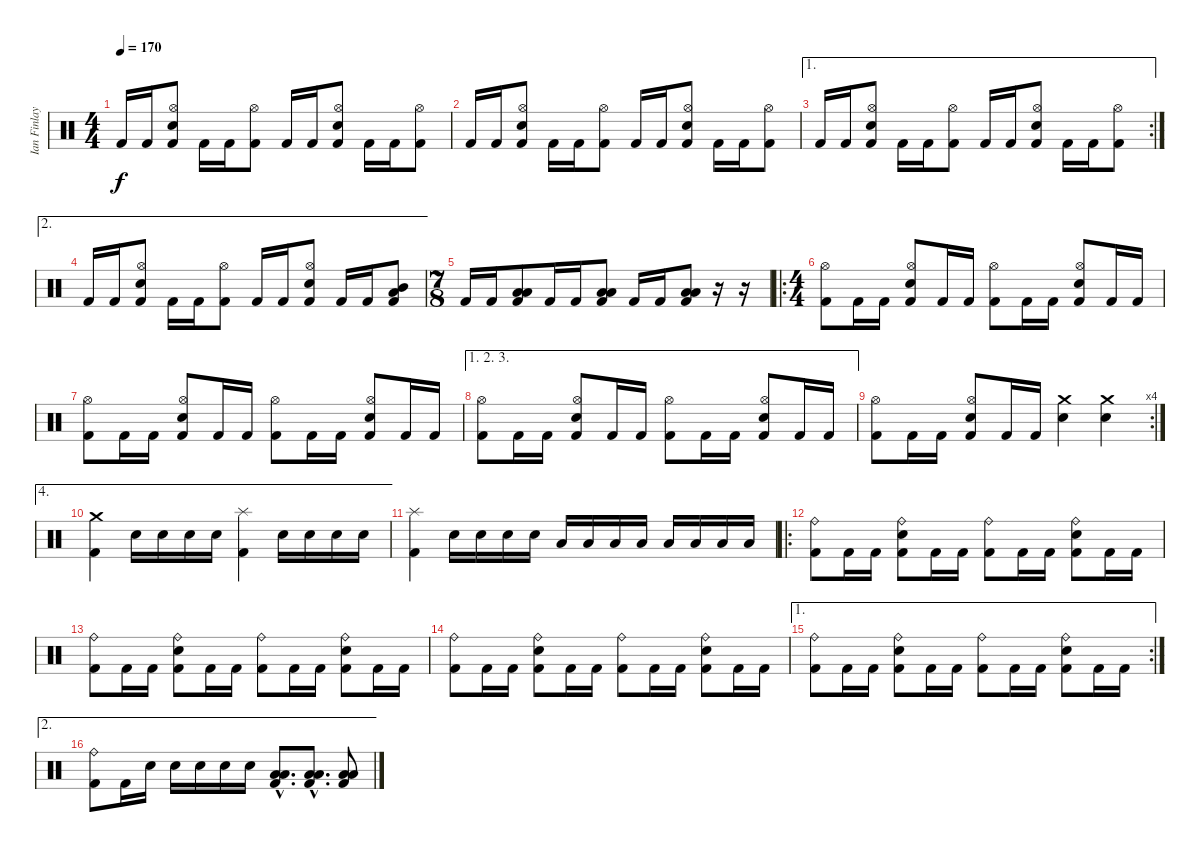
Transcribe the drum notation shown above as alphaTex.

\track ("Ian Finlay (Drums)" "Ian Finlay") {instrument percussion}
\staff {score}
\articulation defaults
\ts (4 4)
\tempo 170
\clef neutral
\ks c "Kick (hit) 2".16{dy f} "Kick (hit) 2".16
("Kick (hit) 2" "Hi-Hat (open)" "Snare (hit) 2").8 "Kick (hit) 2".16 "Kick (hit) 2".16 ("Kick (hit) 2" "Hi-Hat (open)").8 "Kick (hit) 2".16 "Kick (hit) 2".16 ("Kick (hit) 2" "Hi-Hat (open)" "Snare (hit) 2").8 "Kick (hit) 2".16 "Kick (hit) 2".16 ("Kick (hit) 2" "Hi-Hat (open)").8 |
"Kick (hit) 2".16 "Kick (hit) 2".16 ("Kick (hit) 2" "Hi-Hat (open)" "Snare (hit) 2").8 "Kick (hit) 2".16 "Kick (hit) 2".16 ("Kick (hit) 2" "Hi-Hat (open)").8 "Kick (hit) 2".16 "Kick (hit) 2".16 ("Kick (hit) 2" "Hi-Hat (open)" "Snare (hit) 2").8 "Kick (hit) 2".16 "Kick (hit) 2".16 ("Kick (hit) 2" "Hi-Hat (open)").8 |
\ae 1
\rc 2 "Kick (hit) 2".16 "Kick (hit) 2".16
("Kick (hit) 2" "Hi-Hat (open)" "Snare (hit) 2").8 "Kick (hit) 2".16 "Kick (hit) 2".16 ("Kick (hit) 2" "Hi-Hat (open)").8 "Kick (hit) 2".16 "Kick (hit) 2".16 ("Kick (hit) 2" "Hi-Hat (open)" "Snare (hit) 2").8 "Kick (hit) 2".16 "Kick (hit) 2".16 ("Kick (hit) 2" "Hi-Hat (open)").8 |
\ae 2 "Kick (hit) 2".16 "Kick (hit) 2".16
("Kick (hit) 2" "Hi-Hat (open)" "Snare (hit) 2").8 "Kick (hit) 2".16 "Kick (hit) 2".16 ("Kick (hit) 2" "Hi-Hat (open)").8 "Kick (hit) 2".16 "Kick (hit) 2".16 ("Kick (hit) 2" "Hi-Hat (open)" "Snare (hit) 2").8 "Kick (hit) 2".16 "Kick (hit) 2".16 ("Kick (hit) 2" "Mid Tom (hit)" "Low Tom (hit)").8 |
\ts (7 8)
"Kick (hit) 2".16 "Kick (hit) 2".16 ("Kick (hit) 2" "Low Tom (hit)" "Low Floor Tom (hit)").8 "Kick (hit) 2".16 "Kick (hit) 2".16 ("Kick (hit) 2" "Low Floor Tom (hit)" "Low Floor Tom (hit)").8 "Kick (hit) 2".16 "Kick (hit) 2".16 ("Kick (hit) 2" "Low Floor Tom (hit)" "Low Floor Tom (hit)").8 r.16 r.16 |
\ro
\ts (4 4)
("Kick (hit) 2" "Hi-Hat (open)").8 "Kick (hit) 2".16 "Kick (hit) 2".16 ("Kick (hit) 2" "Snare (hit) 2" "Hi-Hat (open)").8 "Kick (hit) 2".16 "Kick (hit) 2".16 ("Kick (hit) 2" "Hi-Hat (open)").8 "Kick (hit) 2".16 "Kick (hit) 2".16 ("Kick (hit) 2" "Snare (hit) 2" "Hi-Hat (open)").8 "Kick (hit) 2".16 "Kick (hit) 2".16 |
("Kick (hit) 2" "Hi-Hat (open)").8 "Kick (hit) 2".16 "Kick (hit) 2".16 ("Kick (hit) 2" "Snare (hit) 2" "Hi-Hat (open)").8 "Kick (hit) 2".16 "Kick (hit) 2".16 ("Kick (hit) 2" "Hi-Hat (open)").8 "Kick (hit) 2".16 "Kick (hit) 2".16 ("Kick (hit) 2" "Snare (hit) 2" "Hi-Hat (open)").8 "Kick (hit) 2".16 "Kick (hit) 2".16 |
\ae (1 2 3)
("Kick (hit) 2" "Hi-Hat (open)").8 "Kick (hit) 2".16 "Kick (hit) 2".16 ("Kick (hit) 2" "Snare (hit) 2" "Hi-Hat (open)").8 "Kick (hit) 2".16 "Kick (hit) 2".16 ("Kick (hit) 2" "Hi-Hat (open)").8 "Kick (hit) 2".16 "Kick (hit) 2".16 ("Kick (hit) 2" "Snare (hit) 2" "Hi-Hat (open)").8 "Kick (hit) 2".16 "Kick (hit) 2".16 |
\rc 4
("Kick (hit) 2" "Hi-Hat (open)").8 "Kick (hit) 2".16 "Kick (hit) 2".16 ("Kick (hit) 2" "Snare (hit) 2" "Hi-Hat (open)").8 "Kick (hit) 2".16 "Kick (hit) 2".16 ("Snare (hit) 2" "Crash medium (hit)").4 ("Snare (hit) 2" "Crash medium (hit)").4 |
\ae 4
("Kick (hit) 2" "Crash medium (hit)").4 "Snare (hit) 2".16 "Snare (hit) 2".16 "Snare (hit) 2".16 "Snare (hit) 2".16 ("Kick (hit) 2" "Splash (hit)").4 "Snare (hit) 2".16 "Snare (hit) 2".16 "Snare (hit) 2".16 "Snare (hit) 2".16 |
("Kick (hit) 2" "Splash (hit)").4 "Snare (hit) 2".16 "Snare (hit) 2".16 "Snare (hit) 2".16 "Snare (hit) 2".16 "Low Tom (hit)".16 "Low Tom (hit)".16 "Low Tom (hit)".16 "Low Tom (hit)".16 "Low Floor Tom (hit)".16 "Low Floor Tom (hit)".16 "Low Floor Tom (hit)".16 "Low Floor Tom (hit)".16 |
\ro
("Kick (hit) 2" "Ride (bell)").8 "Kick (hit) 2".16 "Kick (hit) 2".16 ("Kick (hit) 2" "Snare (hit) 2" "Ride (bell)").8 "Kick (hit) 2".16 "Kick (hit) 2".16 ("Kick (hit) 2" "Ride (bell)").8 "Kick (hit) 2".16 "Kick (hit) 2".16 ("Kick (hit) 2" "Snare (hit) 2" "Ride (bell)").8 "Kick (hit) 2".16 "Kick (hit) 2".16 |
("Kick (hit) 2" "Ride (bell)").8 "Kick (hit) 2".16 "Kick (hit) 2".16 ("Kick (hit) 2" "Snare (hit) 2" "Ride (bell)").8 "Kick (hit) 2".16 "Kick (hit) 2".16 ("Kick (hit) 2" "Ride (bell)").8 "Kick (hit) 2".16 "Kick (hit) 2".16 ("Kick (hit) 2" "Snare (hit) 2" "Ride (bell)").8 "Kick (hit) 2".16 "Kick (hit) 2".16 |
("Kick (hit) 2" "Ride (bell)").8 "Kick (hit) 2".16 "Kick (hit) 2".16 ("Kick (hit) 2" "Snare (hit) 2" "Ride (bell)").8 "Kick (hit) 2".16 "Kick (hit) 2".16 ("Kick (hit) 2" "Ride (bell)").8 "Kick (hit) 2".16 "Kick (hit) 2".16 ("Kick (hit) 2" "Snare (hit) 2" "Ride (bell)").8 "Kick (hit) 2".16 "Kick (hit) 2".16 |
\ae 1
\rc 2
("Kick (hit) 2" "Ride (bell)").8 "Kick (hit) 2".16 "Kick (hit) 2".16 ("Kick (hit) 2" "Snare (hit) 2" "Ride (bell)").8 "Kick (hit) 2".16 "Kick (hit) 2".16 ("Kick (hit) 2" "Ride (bell)").8 "Kick (hit) 2".16 "Kick (hit) 2".16 ("Kick (hit) 2" "Snare (hit) 2" "Ride (bell)").8 "Kick (hit) 2".16 "Kick (hit) 2".16 |
\ae 2
("Kick (hit) 2" "Ride (bell)").8 "Kick (hit) 2".16 "Snare (hit) 2".16 "Snare (hit) 2".16 "Snare (hit) 2".16 "Snare (hit) 2".16 "Snare (hit) 2".16 ("Kick (hit) 2"{hac} "Low Floor Tom (hit)"{hac} "Low Tom (hit)"{hac}).8{d} ("Kick (hit) 2"{hac} "Low Floor Tom (hit)"{hac} "Low Tom (hit)"{hac}).8{d} ("Kick (hit) 2" "Low Floor Tom (hit)" "Low Tom (hit)").8
